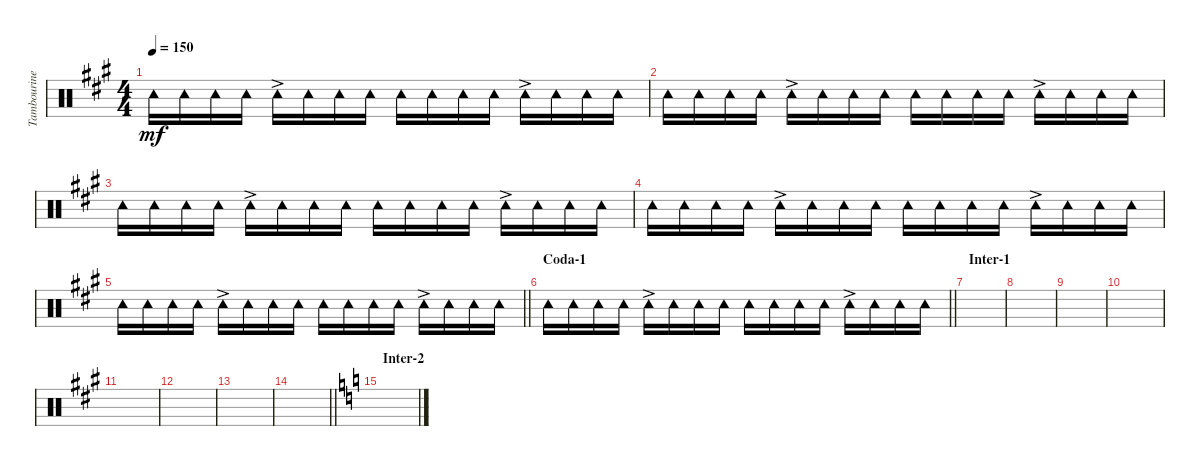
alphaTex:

\track ("Tambourine" "Tambourine") {instrument percussion}
\staff {score}
\articulation defaults
\ts (4 4)
\tempo 150
\clef neutral
\ks a "Tambourine (hit)".16{dy mf} "Tambourine (hit)".16 "Tambourine (hit)".16 "Tambourine (hit)".16 "Tambourine (hit)"{ac}.16 "Tambourine (hit)".16 "Tambourine (hit)".16 "Tambourine (hit)".16 "Tambourine (hit)".16 "Tambourine (hit)".16 "Tambourine (hit)".16 "Tambourine (hit)".16 "Tambourine (hit)"{ac}.16 "Tambourine (hit)".16 "Tambourine (hit)".16 "Tambourine (hit)".16
|
"Tambourine (hit)".16 "Tambourine (hit)".16 "Tambourine (hit)".16 "Tambourine (hit)".16 "Tambourine (hit)"{ac}.16 "Tambourine (hit)".16 "Tambourine (hit)".16 "Tambourine (hit)".16 "Tambourine (hit)".16 "Tambourine (hit)".16 "Tambourine (hit)".16 "Tambourine (hit)".16 "Tambourine (hit)"{ac}.16 "Tambourine (hit)".16 "Tambourine (hit)".16 "Tambourine (hit)".16 |
"Tambourine (hit)".16 "Tambourine (hit)".16 "Tambourine (hit)".16 "Tambourine (hit)".16 "Tambourine (hit)"{ac}.16 "Tambourine (hit)".16 "Tambourine (hit)".16 "Tambourine (hit)".16 "Tambourine (hit)".16 "Tambourine (hit)".16 "Tambourine (hit)".16 "Tambourine (hit)".16 "Tambourine (hit)"{ac}.16 "Tambourine (hit)".16 "Tambourine (hit)".16 "Tambourine (hit)".16 |
"Tambourine (hit)".16 "Tambourine (hit)".16 "Tambourine (hit)".16 "Tambourine (hit)".16 "Tambourine (hit)"{ac}.16 "Tambourine (hit)".16 "Tambourine (hit)".16 "Tambourine (hit)".16 "Tambourine (hit)".16 "Tambourine (hit)".16 "Tambourine (hit)".16 "Tambourine (hit)".16 "Tambourine (hit)"{ac}.16 "Tambourine (hit)".16 "Tambourine (hit)".16 "Tambourine (hit)".16 |
\barLineRight lightlight "Tambourine (hit)".16 "Tambourine (hit)".16 "Tambourine (hit)".16 "Tambourine (hit)".16 "Tambourine (hit)"{ac}.16 "Tambourine (hit)".16 "Tambourine (hit)".16 "Tambourine (hit)".16 "Tambourine (hit)".16 "Tambourine (hit)".16 "Tambourine (hit)".16 "Tambourine (hit)".16 "Tambourine (hit)"{ac}.16 "Tambourine (hit)".16 "Tambourine (hit)".16 "Tambourine (hit)".16
|
\section ("" "Coda-1")
\barLineRight lightlight "Tambourine (hit)".16 "Tambourine (hit)".16 "Tambourine (hit)".16 "Tambourine (hit)".16 "Tambourine (hit)"{ac}.16 "Tambourine (hit)".16 "Tambourine (hit)".16 "Tambourine (hit)".16 "Tambourine (hit)".16 "Tambourine (hit)".16 "Tambourine (hit)".16 "Tambourine (hit)".16 "Tambourine (hit)"{ac}.16 "Tambourine (hit)".16 "Tambourine (hit)".16 "Tambourine (hit)".16
|
\section ("" "Inter-1")
|
|
|
|
|
|
|
\barLineRight lightlight
|
\section ("" "Inter-2")
\ks c
